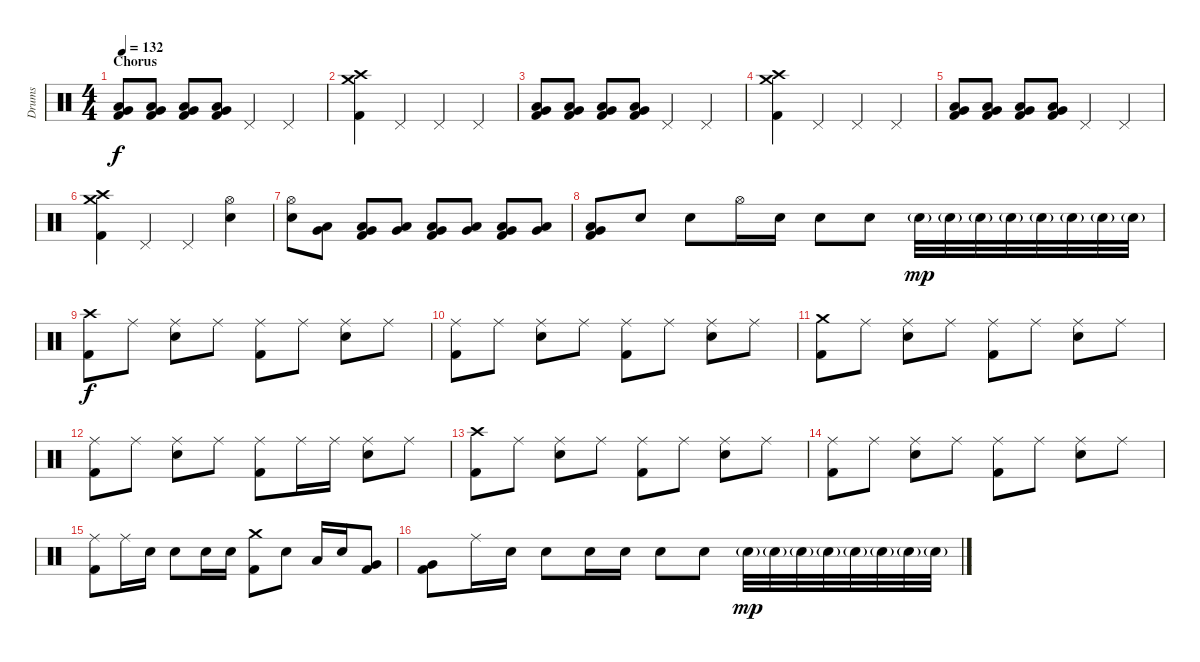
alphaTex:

\track ("Drums" "Drums") {instrument percussion}
\staff {score}
\articulation defaults
\ts (4 4)
\section ("" "Chorus")
\tempo 132
\clef neutral
\ks c
("Very Low Tom (hit)" "Low Tom (hit)" "Kick (hit) 2").8{dy f} ("Very Low Tom (hit)" "Low Tom (hit)" "Kick (hit) 2").8 ("Very Low Tom (hit)" "Low Tom (hit)" "Kick (hit) 2").8 ("Very Low Tom (hit)" "Low Tom (hit)" "Kick (hit) 2").8 "Pedal Hi-Hat (hit)".4 "Pedal Hi-Hat (hit)".4 |
("Crash high (hit)" "Crash medium (hit)" "Kick (hit) 2").4 "Pedal Hi-Hat (hit)".4 "Pedal Hi-Hat (hit)".4 "Pedal Hi-Hat (hit)".4 |
("Very Low Tom (hit)" "Low Tom (hit)" "Kick (hit) 2").8 ("Very Low Tom (hit)" "Low Tom (hit)" "Kick (hit) 2").8 ("Very Low Tom (hit)" "Low Tom (hit)" "Kick (hit) 2").8 ("Very Low Tom (hit)" "Low Tom (hit)" "Kick (hit) 2").8 "Pedal Hi-Hat (hit)".4 "Pedal Hi-Hat (hit)".4 |
("Crash high (hit)" "Crash medium (hit)" "Kick (hit) 2").4 "Pedal Hi-Hat (hit)".4 "Pedal Hi-Hat (hit)".4 "Pedal Hi-Hat (hit)".4 |
("Very Low Tom (hit)" "Low Tom (hit)" "Kick (hit) 2").8 ("Very Low Tom (hit)" "Low Tom (hit)" "Kick (hit) 2").8 ("Very Low Tom (hit)" "Low Tom (hit)" "Kick (hit) 2").8 ("Very Low Tom (hit)" "Low Tom (hit)" "Kick (hit) 2").8 "Pedal Hi-Hat (hit)".4 "Pedal Hi-Hat (hit)".4 |
("Crash high (hit)" "Crash medium (hit)" "Kick (hit) 2").4 "Pedal Hi-Hat (hit)".4 "Pedal Hi-Hat (hit)".4 ("Hi-Hat (open)" "Snare (hit) 2").4 |
("Hi-Hat (open)" "Snare (hit) 2").8 ("Low Tom (hit)" "Very Low Tom (hit)").8 ("Low Tom (hit)" "Very Low Tom (hit)" "Kick (hit) 2").8 ("Low Tom (hit)" "Very Low Tom (hit)").8 ("Low Tom (hit)" "Very Low Tom (hit)" "Kick (hit) 2").8 ("Low Tom (hit)" "Very Low Tom (hit)").8 ("Low Tom (hit)" "Very Low Tom (hit)" "Kick (hit) 2").8 ("Low Tom (hit)" "Very Low Tom (hit)").8 |
("Low Tom (hit)" "Very Low Tom (hit)" "Kick (hit) 2").8 "Snare (hit) 2".8 "Snare (hit) 2".8 "Hi-Hat (open)".16 "Snare (hit) 2".16 "Snare (hit) 2".8 "Snare (hit) 2".8 "Snare (hit) 2"{g}.32{dy mp} "Snare (hit) 2"{g}.32 "Snare (hit) 2"{g}.32 "Snare (hit) 2"{g}.32 "Snare (hit) 2"{g}.32 "Snare (hit) 2"{g}.32 "Snare (hit) 2"{g}.32 "Snare (hit) 2"{g}.32 |
("Crash high (hit)" "Kick (hit) 2").8{dy f} "Ride (middle)".8 ("Ride (middle)" "Snare (hit) 2").8 "Ride (middle)".8 ("Ride (middle)" "Kick (hit) 2").8 "Ride (middle)".8 ("Ride (middle)" "Snare (hit) 2").8 "Ride (middle)".8 |
("Ride (middle)" "Kick (hit) 2").8 "Ride (middle)".8 ("Ride (middle)" "Snare (hit) 2").8 "Ride (middle)".8 ("Ride (middle)" "Kick (hit) 2").8 "Ride (middle)".8 ("Ride (middle)" "Snare (hit) 2").8 "Ride (middle)".8 |
("Crash medium (hit)" "Kick (hit) 2").8 "Ride (middle)".8 ("Ride (middle)" "Snare (hit) 2").8 "Ride (middle)".8 ("Ride (middle)" "Kick (hit) 2").8 "Ride (middle)".8 ("Ride (middle)" "Snare (hit) 2").8 "Ride (middle)".8 |
("Ride (middle)" "Kick (hit) 2").8 "Ride (middle)".8 ("Ride (middle)" "Snare (hit) 2").8 "Ride (middle)".8 ("Ride (middle)" "Kick (hit) 2").8 "Ride (middle)".16 "Ride (middle)".16 ("Ride (middle)" "Snare (hit) 2").8 "Ride (middle)".8 |
("Crash high (hit)" "Kick (hit) 2").8 "Ride (middle)".8 ("Ride (middle)" "Snare (hit) 2").8 "Ride (middle)".8 ("Ride (middle)" "Kick (hit) 2").8 "Ride (middle)".8 ("Ride (middle)" "Snare (hit) 2").8 "Ride (middle)".8 |
("Ride (middle)" "Kick (hit) 2").8 "Ride (middle)".8 ("Ride (middle)" "Snare (hit) 2").8 "Ride (middle)".8 ("Ride (middle)" "Kick (hit) 2").8 "Ride (middle)".8 ("Ride (middle)" "Snare (hit) 2").8 "Ride (middle)".8 |
("Ride (middle)" "Kick (hit) 2").8 "Ride (middle)".16 "Snare (hit) 2".16 "Snare (hit) 2".8 "Snare (hit) 2".16 "Snare (hit) 2".16 ("Crash medium (hit)" "Kick (hit) 2").8 "Snare (hit) 2".8 "Low Tom (hit)".16 "Snare (hit) 2".16 ("Very Low Tom (hit)" "Kick (hit) 2").8 |
("Very Low Tom (hit)" "Kick (hit) 2").8 "Ride (middle)".16 "Snare (hit) 2".16 "Snare (hit) 2".8 "Snare (hit) 2".16 "Snare (hit) 2".16 "Snare (hit) 2".8 "Snare (hit) 2".8 "Snare (hit) 2"{g}.32{dy mp} "Snare (hit) 2"{g}.32 "Snare (hit) 2"{g}.32 "Snare (hit) 2"{g}.32 "Snare (hit) 2"{g}.32 "Snare (hit) 2"{g}.32 "Snare (hit) 2"{g}.32 "Snare (hit) 2"{g}.32
